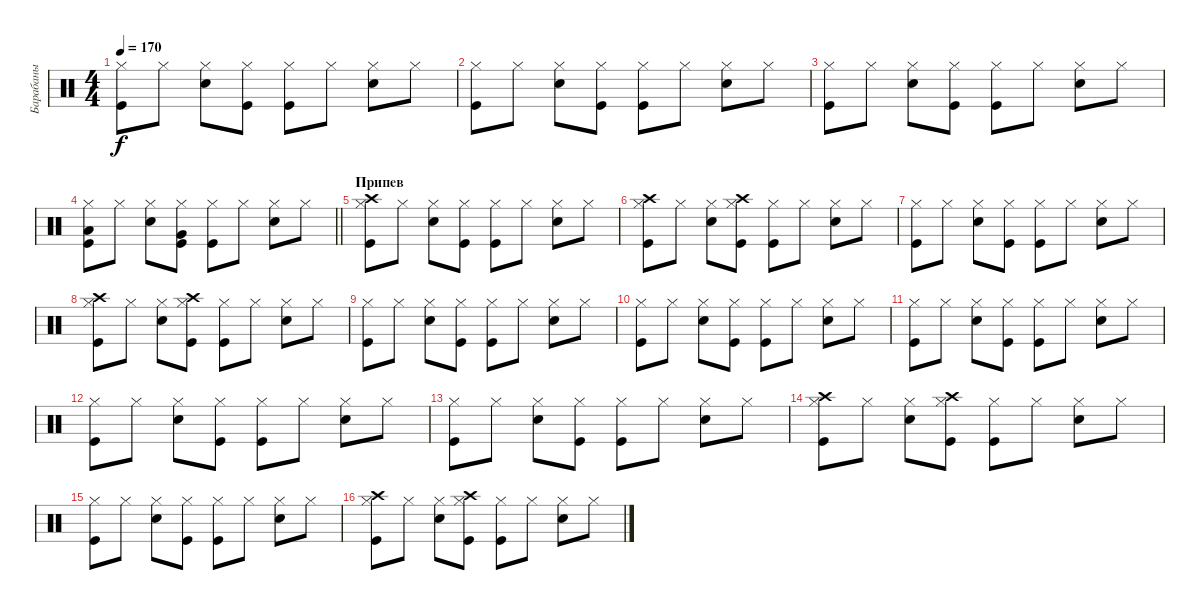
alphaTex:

\track ("Барабаны" "Барабаны") {instrument percussion}
\staff {score}
\articulation defaults
\ts (4 4)
\tempo 170
\clef neutral
\ks c
("Kick (hit)" "Hi-Hat (closed)").8{dy f} "Hi-Hat (closed)".8 ("Snare (hit) 2" "Hi-Hat (closed)").8 ("Kick (hit)" "Hi-Hat (closed)").8 ("Kick (hit)" "Hi-Hat (closed)").8 "Hi-Hat (closed)".8 ("Snare (hit) 2" "Hi-Hat (closed)").8 "Hi-Hat (closed)".8 |
("Kick (hit)" "Hi-Hat (closed)").8 "Hi-Hat (closed)".8 ("Snare (hit) 2" "Hi-Hat (closed)").8 ("Kick (hit)" "Hi-Hat (closed)").8 ("Kick (hit)" "Hi-Hat (closed)").8 "Hi-Hat (closed)".8 ("Snare (hit) 2" "Hi-Hat (closed)").8 "Hi-Hat (closed)".8 |
("Kick (hit)" "Hi-Hat (closed)").8 "Hi-Hat (closed)".8 ("Snare (hit) 2" "Hi-Hat (closed)").8 ("Kick (hit)" "Hi-Hat (closed)").8 ("Kick (hit)" "Hi-Hat (closed)").8 "Hi-Hat (closed)".8 ("Snare (hit) 2" "Hi-Hat (closed)").8 "Hi-Hat (closed)".8 |
\barLineRight lightlight
("Kick (hit)" "Hi-Hat (closed)" "Low Tom (hit)").8 "Hi-Hat (closed)".8 ("Snare (hit) 2" "Hi-Hat (closed)").8 ("Kick (hit)" "Hi-Hat (closed)" "Very Low Tom (hit)").8 ("Kick (hit)" "Hi-Hat (closed)").8 "Hi-Hat (closed)".8 ("Snare (hit) 2" "Hi-Hat (closed)").8 "Hi-Hat (closed)".8 |
\section ("" "Припев")
("Kick (hit)" "Hi-Hat (closed)" "Crash high (hit)").8 "Hi-Hat (closed)".8 ("Snare (hit) 2" "Hi-Hat (closed)").8 ("Kick (hit)" "Hi-Hat (closed)").8 ("Kick (hit)" "Hi-Hat (closed)").8 "Hi-Hat (closed)".8 ("Snare (hit) 2" "Hi-Hat (closed)").8 "Hi-Hat (closed)".8 |
("Kick (hit)" "Hi-Hat (closed)" "Crash high (hit)").8 "Hi-Hat (closed)".8 ("Snare (hit) 2" "Hi-Hat (closed)").8 ("Kick (hit)" "Hi-Hat (closed)" "Crash high (hit)").8 ("Kick (hit)" "Hi-Hat (closed)").8 "Hi-Hat (closed)".8 ("Snare (hit) 2" "Hi-Hat (closed)").8 "Hi-Hat (closed)".8 |
("Kick (hit)" "Hi-Hat (closed)").8 "Hi-Hat (closed)".8 ("Snare (hit) 2" "Hi-Hat (closed)").8 ("Kick (hit)" "Hi-Hat (closed)").8 ("Kick (hit)" "Hi-Hat (closed)").8 "Hi-Hat (closed)".8 ("Snare (hit) 2" "Hi-Hat (closed)").8 "Hi-Hat (closed)".8 |
("Kick (hit)" "Hi-Hat (closed)" "Crash high (hit)").8 "Hi-Hat (closed)".8 ("Snare (hit) 2" "Hi-Hat (closed)").8 ("Kick (hit)" "Hi-Hat (closed)" "Crash high (hit)").8 ("Kick (hit)" "Hi-Hat (closed)").8 "Hi-Hat (closed)".8 ("Snare (hit) 2" "Hi-Hat (closed)").8 "Hi-Hat (closed)".8 |
("Kick (hit)" "Hi-Hat (closed)").8 "Hi-Hat (closed)".8 ("Snare (hit) 2" "Hi-Hat (closed)").8 ("Kick (hit)" "Hi-Hat (closed)").8 ("Kick (hit)" "Hi-Hat (closed)").8 "Hi-Hat (closed)".8 ("Snare (hit) 2" "Hi-Hat (closed)").8 "Hi-Hat (closed)".8 |
("Kick (hit)" "Hi-Hat (closed)").8 "Hi-Hat (closed)".8 ("Snare (hit) 2" "Hi-Hat (closed)").8 ("Kick (hit)" "Hi-Hat (closed)").8 ("Kick (hit)" "Hi-Hat (closed)").8 "Hi-Hat (closed)".8 ("Snare (hit) 2" "Hi-Hat (closed)").8 "Hi-Hat (closed)".8 |
("Kick (hit)" "Hi-Hat (closed)").8 "Hi-Hat (closed)".8 ("Snare (hit) 2" "Hi-Hat (closed)").8 ("Kick (hit)" "Hi-Hat (closed)").8 ("Kick (hit)" "Hi-Hat (closed)").8 "Hi-Hat (closed)".8 ("Snare (hit) 2" "Hi-Hat (closed)").8 "Hi-Hat (closed)".8 |
("Kick (hit)" "Hi-Hat (closed)").8 "Hi-Hat (closed)".8 ("Snare (hit) 2" "Hi-Hat (closed)").8 ("Kick (hit)" "Hi-Hat (closed)").8 ("Kick (hit)" "Hi-Hat (closed)").8 "Hi-Hat (closed)".8 ("Snare (hit) 2" "Hi-Hat (closed)").8 "Hi-Hat (closed)".8 |
("Kick (hit)" "Hi-Hat (closed)").8 "Hi-Hat (closed)".8 ("Snare (hit) 2" "Hi-Hat (closed)").8 ("Kick (hit)" "Hi-Hat (closed)").8 ("Kick (hit)" "Hi-Hat (closed)").8 "Hi-Hat (closed)".8 ("Snare (hit) 2" "Hi-Hat (closed)").8 "Hi-Hat (closed)".8 |
("Kick (hit)" "Hi-Hat (closed)" "Crash high (hit)").8 "Hi-Hat (closed)".8 ("Snare (hit) 2" "Hi-Hat (closed)").8 ("Kick (hit)" "Hi-Hat (closed)" "Crash high (hit)").8 ("Kick (hit)" "Hi-Hat (closed)").8 "Hi-Hat (closed)".8 ("Snare (hit) 2" "Hi-Hat (closed)").8 "Hi-Hat (closed)".8 |
("Kick (hit)" "Hi-Hat (closed)").8 "Hi-Hat (closed)".8 ("Snare (hit) 2" "Hi-Hat (closed)").8 ("Kick (hit)" "Hi-Hat (closed)").8 ("Kick (hit)" "Hi-Hat (closed)").8 "Hi-Hat (closed)".8 ("Snare (hit) 2" "Hi-Hat (closed)").8 "Hi-Hat (closed)".8 |
("Kick (hit)" "Hi-Hat (closed)" "Crash high (hit)").8 "Hi-Hat (closed)".8 ("Snare (hit) 2" "Hi-Hat (closed)").8 ("Kick (hit)" "Hi-Hat (closed)" "Crash high (hit)").8 ("Kick (hit)" "Hi-Hat (closed)").8 "Hi-Hat (closed)".8 ("Snare (hit) 2" "Hi-Hat (closed)").8 "Hi-Hat (closed)".8
